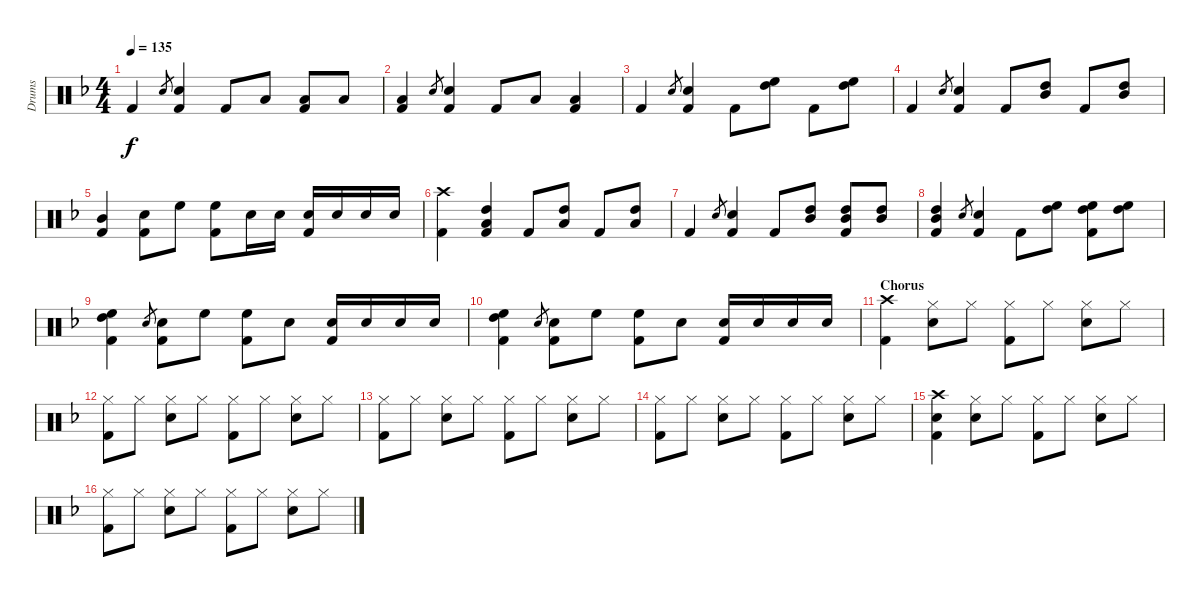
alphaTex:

\track ("Drums" "Drums") {instrument percussion}
\staff {score}
\articulation defaults
\ts (4 4)
\tempo 135
\clef neutral
\ks f "Kick (hit) 2".4{dy f} "Snare (hit) 2".8{gr}
("Snare (hit) 2" "Kick (hit) 2").4 "Kick (hit) 2".8 "Low Tom (hit)".8 ("Low Tom (hit)" "Kick (hit) 2").8 "Low Tom (hit)".8 |
("Low Tom (hit)" "Kick (hit) 2").4 "Snare (hit) 2".8{gr} ("Snare (hit) 2" "Kick (hit) 2").4 "Kick (hit) 2".8 "Low Tom (hit)".8 ("Low Tom (hit)" "Kick (hit) 2").4 |
"Kick (hit) 2".4 "Snare (hit) 2".8{gr} ("Snare (hit) 2" "Kick (hit) 2").4 "Kick (hit) 2".8 ("High Tom (hit)" "High Floor Tom (hit)").8 "Kick (hit) 2".8 ("High Tom (hit)" "High Floor Tom (hit)").8 |
"Kick (hit) 2".4 "Snare (hit) 2".8{gr} ("Snare (hit) 2" "Kick (hit) 2").4 "Kick (hit) 2".8 ("High Tom (hit)" "Mid Tom (hit)").8 "Kick (hit) 2".8 ("High Tom (hit)" "Mid Tom (hit)").8 |
("Mid Tom (hit)" "Kick (hit) 2").4 ("Snare (hit) 2" "Kick (hit) 2").8 "High Floor Tom (hit)".8 ("High Floor Tom (hit)" "Kick (hit) 2").8 "Snare (hit) 2".16 "Snare (hit) 2".16 ("Snare (hit) 2" "Kick (hit) 2").16 "Snare (hit) 2".16 "Snare (hit) 2".16 "Snare (hit) 2".16 |
("Crash high (hit)" "Kick (hit) 2").4 ("High Tom (hit)" "Low Tom (hit)" "Kick (hit) 2").4 "Kick (hit) 2".8 ("High Tom (hit)" "Low Tom (hit)").8 "Kick (hit) 2".8 ("High Tom (hit)" "Low Tom (hit)").8 |
"Kick (hit) 2".4 "Snare (hit) 2".8{gr} ("Snare (hit) 2" "Kick (hit) 2").4 "Kick (hit) 2".8 ("High Tom (hit)" "Mid Tom (hit)").8 ("High Tom (hit)" "Mid Tom (hit)" "Kick (hit) 2").8 ("High Tom (hit)" "Mid Tom (hit)").8 |
("High Tom (hit)" "Mid Tom (hit)" "Kick (hit) 2").4 "Snare (hit) 2".8{gr} ("Snare (hit) 2" "Kick (hit) 2").4 "Kick (hit) 2".8 ("High Floor Tom (hit)" "High Tom (hit)").8 ("High Floor Tom (hit)" "High Tom (hit)" "Kick (hit) 2").8 ("High Floor Tom (hit)" "High Tom (hit)").8 |
("High Floor Tom (hit)" "High Tom (hit)" "Kick (hit) 2").4 "Snare (hit) 2".8{gr} ("Snare (hit) 2" "Kick (hit) 2").8 "High Floor Tom (hit)".8 ("High Floor Tom (hit)" "Kick (hit) 2").8 "Snare (hit) 2".8 ("Snare (hit) 2" "Kick (hit) 2").16 "Snare (hit) 2".16 "Snare (hit) 2".16 "Snare (hit) 2".16 |
("High Floor Tom (hit)" "High Tom (hit)" "Kick (hit) 2").4 "Snare (hit) 2".8{gr} ("Snare (hit) 2" "Kick (hit) 2").8 "High Floor Tom (hit)".8 ("High Floor Tom (hit)" "Kick (hit) 2").8 "Snare (hit) 2".8 ("Snare (hit) 2" "Kick (hit) 2").16 "Snare (hit) 2".16 "Snare (hit) 2".16 "Snare (hit) 2".16 |
\section ("" "Chorus")
("Crash high (hit)" "Kick (hit) 2").4 ("Hi-Hat (closed)" "Snare (hit) 2").8 "Hi-Hat (closed)".8 ("Hi-Hat (closed)" "Kick (hit) 2").8 "Hi-Hat (closed)".8 ("Hi-Hat (closed)" "Snare (hit) 2").8 "Hi-Hat (closed)".8 |
("Hi-Hat (closed)" "Kick (hit) 2").8 "Hi-Hat (closed)".8 ("Hi-Hat (closed)" "Snare (hit) 2").8 "Hi-Hat (closed)".8 ("Hi-Hat (closed)" "Kick (hit) 2").8 "Hi-Hat (closed)".8 ("Hi-Hat (closed)" "Snare (hit) 2").8 "Hi-Hat (closed)".8 |
("Hi-Hat (closed)" "Kick (hit) 2").8 "Hi-Hat (closed)".8 ("Hi-Hat (closed)" "Snare (hit) 2").8 "Hi-Hat (closed)".8 ("Hi-Hat (closed)" "Kick (hit) 2").8 "Hi-Hat (closed)".8 ("Hi-Hat (closed)" "Snare (hit) 2").8 "Hi-Hat (closed)".8 |
("Hi-Hat (closed)" "Kick (hit) 2").8 "Hi-Hat (closed)".8 ("Hi-Hat (closed)" "Snare (hit) 2").8 "Hi-Hat (closed)".8 ("Hi-Hat (closed)" "Kick (hit) 2").8 "Hi-Hat (closed)".8 ("Hi-Hat (closed)" "Snare (hit) 2").8 "Hi-Hat (closed)".8 |
("Crash high (hit)" "Snare (hit) 2" "Kick (hit) 2").4 ("Hi-Hat (closed)" "Snare (hit) 2").8 "Hi-Hat (closed)".8 ("Hi-Hat (closed)" "Kick (hit) 2").8 "Hi-Hat (closed)".8 ("Hi-Hat (closed)" "Snare (hit) 2").8 "Hi-Hat (closed)".8 |
("Hi-Hat (closed)" "Kick (hit) 2").8 "Hi-Hat (closed)".8 ("Hi-Hat (closed)" "Snare (hit) 2").8 "Hi-Hat (closed)".8 ("Hi-Hat (closed)" "Kick (hit) 2").8 "Hi-Hat (closed)".8 ("Hi-Hat (closed)" "Snare (hit) 2").8 "Hi-Hat (closed)".8
